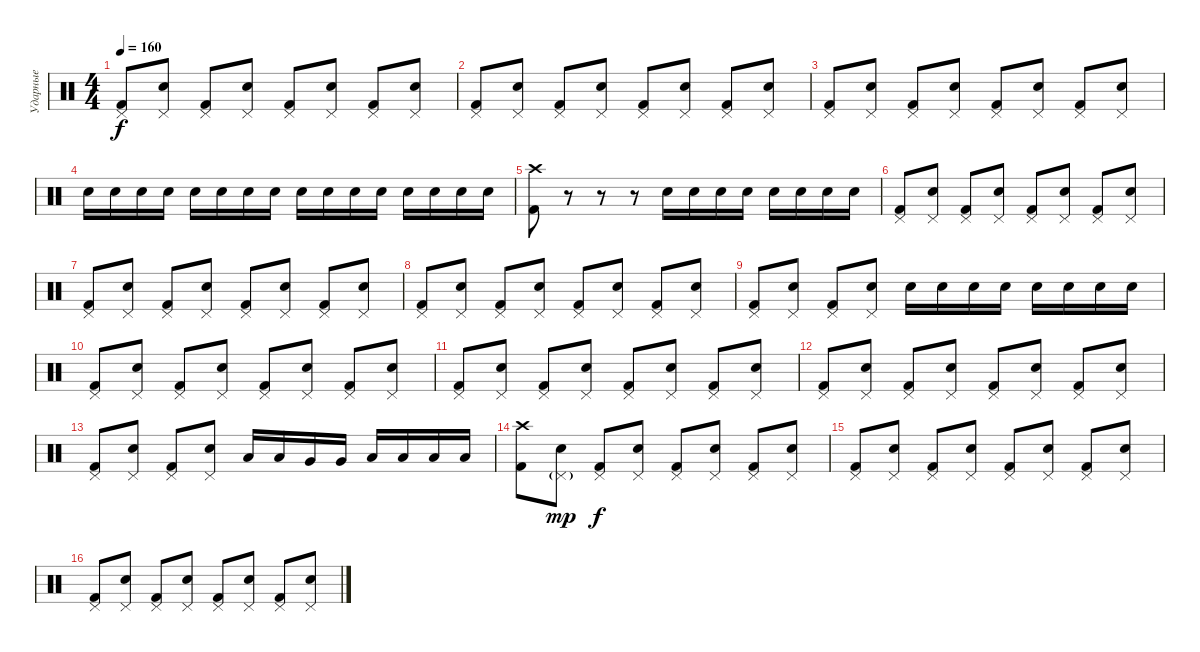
\track ("Ударные" "Ударные") {instrument percussion}
\staff {score}
\articulation defaults
\ts (4 4)
\tempo 160
\clef neutral
\ks c
("Kick (hit) 2" "Pedal Hi-Hat (hit)").8{dy f} ("Electric Snare (hit)" "Pedal Hi-Hat (hit)").8 ("Kick (hit) 2" "Pedal Hi-Hat (hit)").8 ("Electric Snare (hit)" "Pedal Hi-Hat (hit)").8 ("Kick (hit) 2" "Pedal Hi-Hat (hit)").8 ("Electric Snare (hit)" "Pedal Hi-Hat (hit)").8 ("Kick (hit) 2" "Pedal Hi-Hat (hit)").8 ("Electric Snare (hit)" "Pedal Hi-Hat (hit)").8 |
("Kick (hit) 2" "Pedal Hi-Hat (hit)").8 ("Electric Snare (hit)" "Pedal Hi-Hat (hit)").8 ("Kick (hit) 2" "Pedal Hi-Hat (hit)").8 ("Electric Snare (hit)" "Pedal Hi-Hat (hit)").8 ("Kick (hit) 2" "Pedal Hi-Hat (hit)").8 ("Electric Snare (hit)" "Pedal Hi-Hat (hit)").8 ("Kick (hit) 2" "Pedal Hi-Hat (hit)").8 ("Electric Snare (hit)" "Pedal Hi-Hat (hit)").8 |
("Kick (hit) 2" "Pedal Hi-Hat (hit)").8 ("Electric Snare (hit)" "Pedal Hi-Hat (hit)").8 ("Kick (hit) 2" "Pedal Hi-Hat (hit)").8 ("Electric Snare (hit)" "Pedal Hi-Hat (hit)").8 ("Kick (hit) 2" "Pedal Hi-Hat (hit)").8 ("Electric Snare (hit)" "Pedal Hi-Hat (hit)").8 ("Kick (hit) 2" "Pedal Hi-Hat (hit)").8 ("Electric Snare (hit)" "Pedal Hi-Hat (hit)").8 |
"Electric Snare (hit)".16 "Electric Snare (hit)".16 "Electric Snare (hit)".16 "Electric Snare (hit)".16 "Electric Snare (hit)".16 "Electric Snare (hit)".16 "Electric Snare (hit)".16 "Electric Snare (hit)".16 "Electric Snare (hit)".16 "Electric Snare (hit)".16 "Electric Snare (hit)".16 "Electric Snare (hit)".16 "Electric Snare (hit)".16 "Electric Snare (hit)".16 "Electric Snare (hit)".16 "Electric Snare (hit)".16 |
("Kick (hit) 2" "Crash high (hit)").8 r.8 r.8 r.8 "Electric Snare (hit)".16 "Electric Snare (hit)".16 "Electric Snare (hit)".16 "Electric Snare (hit)".16 "Electric Snare (hit)".16 "Electric Snare (hit)".16 "Electric Snare (hit)".16 "Electric Snare (hit)".16 |
("Kick (hit) 2" "Pedal Hi-Hat (hit)").8 ("Electric Snare (hit)" "Pedal Hi-Hat (hit)").8 ("Kick (hit) 2" "Pedal Hi-Hat (hit)").8 ("Electric Snare (hit)" "Pedal Hi-Hat (hit)").8 ("Kick (hit) 2" "Pedal Hi-Hat (hit)").8 ("Electric Snare (hit)" "Pedal Hi-Hat (hit)").8 ("Kick (hit) 2" "Pedal Hi-Hat (hit)").8 ("Electric Snare (hit)" "Pedal Hi-Hat (hit)").8 |
("Kick (hit) 2" "Pedal Hi-Hat (hit)").8 ("Electric Snare (hit)" "Pedal Hi-Hat (hit)").8 ("Kick (hit) 2" "Pedal Hi-Hat (hit)").8 ("Electric Snare (hit)" "Pedal Hi-Hat (hit)").8 ("Kick (hit) 2" "Pedal Hi-Hat (hit)").8 ("Electric Snare (hit)" "Pedal Hi-Hat (hit)").8 ("Kick (hit) 2" "Pedal Hi-Hat (hit)").8 ("Electric Snare (hit)" "Pedal Hi-Hat (hit)").8 |
("Kick (hit) 2" "Pedal Hi-Hat (hit)").8 ("Electric Snare (hit)" "Pedal Hi-Hat (hit)").8 ("Kick (hit) 2" "Pedal Hi-Hat (hit)").8 ("Electric Snare (hit)" "Pedal Hi-Hat (hit)").8 ("Kick (hit) 2" "Pedal Hi-Hat (hit)").8 ("Electric Snare (hit)" "Pedal Hi-Hat (hit)").8 ("Kick (hit) 2" "Pedal Hi-Hat (hit)").8 ("Electric Snare (hit)" "Pedal Hi-Hat (hit)").8 |
("Kick (hit) 2" "Pedal Hi-Hat (hit)").8 ("Electric Snare (hit)" "Pedal Hi-Hat (hit)").8 ("Kick (hit) 2" "Pedal Hi-Hat (hit)").8 ("Electric Snare (hit)" "Pedal Hi-Hat (hit)").8 "Electric Snare (hit)".16 "Electric Snare (hit)".16 "Electric Snare (hit)".16 "Electric Snare (hit)".16 "Electric Snare (hit)".16 "Electric Snare (hit)".16 "Electric Snare (hit)".16 "Electric Snare (hit)".16 |
("Kick (hit) 2" "Pedal Hi-Hat (hit)").8 ("Electric Snare (hit)" "Pedal Hi-Hat (hit)").8 ("Kick (hit) 2" "Pedal Hi-Hat (hit)").8 ("Electric Snare (hit)" "Pedal Hi-Hat (hit)").8 ("Kick (hit) 2" "Pedal Hi-Hat (hit)").8 ("Electric Snare (hit)" "Pedal Hi-Hat (hit)").8 ("Kick (hit) 2" "Pedal Hi-Hat (hit)").8 ("Electric Snare (hit)" "Pedal Hi-Hat (hit)").8 |
("Kick (hit) 2" "Pedal Hi-Hat (hit)").8 ("Electric Snare (hit)" "Pedal Hi-Hat (hit)").8 ("Kick (hit) 2" "Pedal Hi-Hat (hit)").8 ("Electric Snare (hit)" "Pedal Hi-Hat (hit)").8 ("Kick (hit) 2" "Pedal Hi-Hat (hit)").8 ("Electric Snare (hit)" "Pedal Hi-Hat (hit)").8 ("Kick (hit) 2" "Pedal Hi-Hat (hit)").8 ("Electric Snare (hit)" "Pedal Hi-Hat (hit)").8 |
("Kick (hit) 2" "Pedal Hi-Hat (hit)").8 ("Electric Snare (hit)" "Pedal Hi-Hat (hit)").8 ("Kick (hit) 2" "Pedal Hi-Hat (hit)").8 ("Electric Snare (hit)" "Pedal Hi-Hat (hit)").8 ("Kick (hit) 2" "Pedal Hi-Hat (hit)").8 ("Electric Snare (hit)" "Pedal Hi-Hat (hit)").8 ("Kick (hit) 2" "Pedal Hi-Hat (hit)").8 ("Electric Snare (hit)" "Pedal Hi-Hat (hit)").8 |
("Kick (hit) 2" "Pedal Hi-Hat (hit)").8 ("Electric Snare (hit)" "Pedal Hi-Hat (hit)").8 ("Kick (hit) 2" "Pedal Hi-Hat (hit)").8 ("Electric Snare (hit)" "Pedal Hi-Hat (hit)").8 "Low Tom (hit)".16 "Low Tom (hit)".16 "Very Low Tom (hit)".16 "Very Low Tom (hit)".16 "Low Floor Tom (hit)".16 "Low Floor Tom (hit)".16 "Low Floor Tom (hit)".16 "Low Floor Tom (hit)".16 |
("Kick (hit) 2" "Crash high (hit)").8 ("Electric Snare (hit)" "Pedal Hi-Hat (hit)"{g}).8{dy mp} ("Kick (hit) 2" "Pedal Hi-Hat (hit)").8{dy f} ("Electric Snare (hit)" "Pedal Hi-Hat (hit)").8 ("Kick (hit) 2" "Pedal Hi-Hat (hit)").8 ("Electric Snare (hit)" "Pedal Hi-Hat (hit)").8 ("Kick (hit) 2" "Pedal Hi-Hat (hit)").8 ("Electric Snare (hit)" "Pedal Hi-Hat (hit)").8 |
("Kick (hit) 2" "Pedal Hi-Hat (hit)").8 ("Electric Snare (hit)" "Pedal Hi-Hat (hit)").8 ("Kick (hit) 2" "Pedal Hi-Hat (hit)").8 ("Electric Snare (hit)" "Pedal Hi-Hat (hit)").8 ("Kick (hit) 2" "Pedal Hi-Hat (hit)").8 ("Electric Snare (hit)" "Pedal Hi-Hat (hit)").8 ("Kick (hit) 2" "Pedal Hi-Hat (hit)").8 ("Electric Snare (hit)" "Pedal Hi-Hat (hit)").8 |
("Kick (hit) 2" "Pedal Hi-Hat (hit)").8 ("Electric Snare (hit)" "Pedal Hi-Hat (hit)").8 ("Kick (hit) 2" "Pedal Hi-Hat (hit)").8 ("Electric Snare (hit)" "Pedal Hi-Hat (hit)").8 ("Kick (hit) 2" "Pedal Hi-Hat (hit)").8 ("Electric Snare (hit)" "Pedal Hi-Hat (hit)").8 ("Kick (hit) 2" "Pedal Hi-Hat (hit)").8 ("Electric Snare (hit)" "Pedal Hi-Hat (hit)").8
